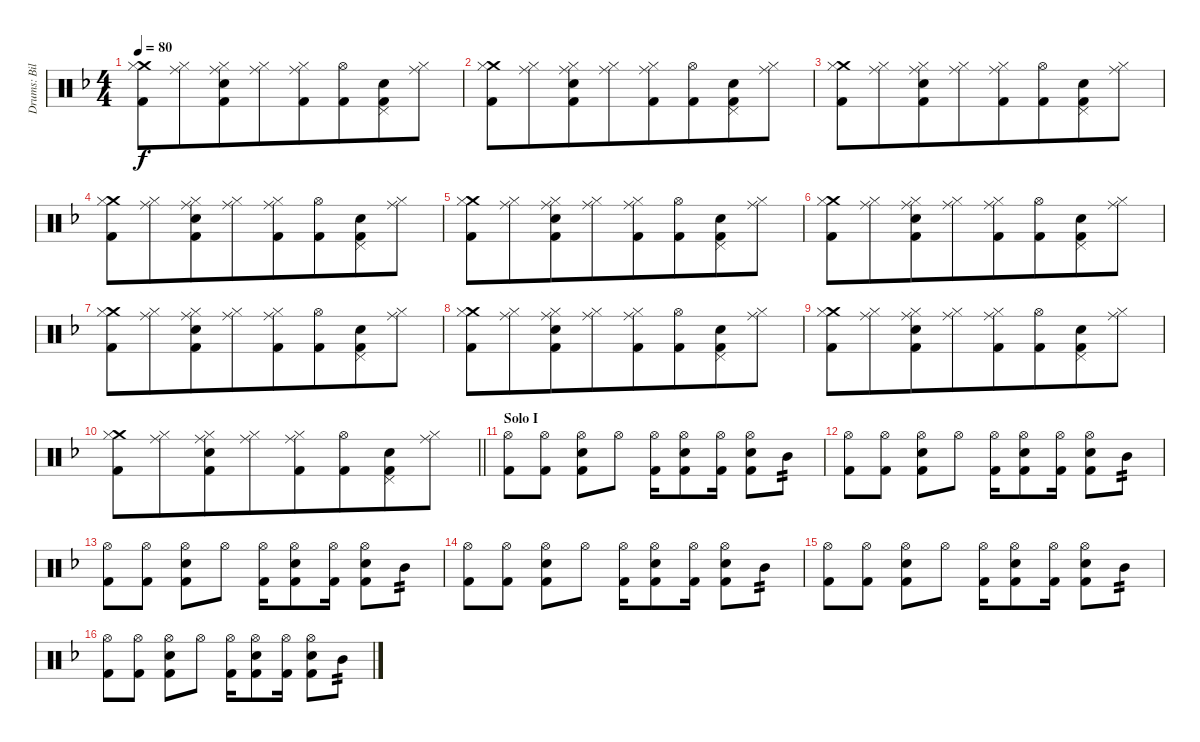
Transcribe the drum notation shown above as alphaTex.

\track ("Drums: Bill" "Drums: Bil") {instrument percussion}
\staff {score}
\articulation defaults
\ts (4 4)
\tempo 80
\clef neutral
\ks f
("Crash medium (hit)" "Hi-Hat (closed)" "Kick (hit) 2").8{dy f} ("Ride (middle)" "Hi-Hat (closed)").8{beam merge} ("Ride (middle)" "Hi-Hat (closed)" "Snare (hit) 2" "Kick (hit) 2").8 ("Ride (middle)" "Hi-Hat (closed)").8{beam merge} ("Ride (middle)" "Hi-Hat (closed)" "Kick (hit) 2").8 ("Hi-Hat (open)" "Kick (hit) 2").8{beam merge} ("Pedal Hi-Hat (hit)" "Snare (hit) 2" "Kick (hit) 2").8 ("Ride (middle)" "Hi-Hat (closed)").8 |
("Crash medium (hit)" "Hi-Hat (closed)" "Kick (hit) 2").8 ("Ride (middle)" "Hi-Hat (closed)").8{beam merge} ("Ride (middle)" "Hi-Hat (closed)" "Snare (hit) 2" "Kick (hit) 2").8 ("Ride (middle)" "Hi-Hat (closed)").8{beam merge} ("Ride (middle)" "Hi-Hat (closed)" "Kick (hit) 2").8 ("Hi-Hat (open)" "Kick (hit) 2").8{beam merge} ("Pedal Hi-Hat (hit)" "Snare (hit) 2" "Kick (hit) 2").8 ("Ride (middle)" "Hi-Hat (closed)").8 |
("Crash medium (hit)" "Hi-Hat (closed)" "Kick (hit) 2").8 ("Ride (middle)" "Hi-Hat (closed)").8{beam merge} ("Ride (middle)" "Hi-Hat (closed)" "Snare (hit) 2" "Kick (hit) 2").8 ("Ride (middle)" "Hi-Hat (closed)").8{beam merge} ("Ride (middle)" "Hi-Hat (closed)" "Kick (hit) 2").8 ("Hi-Hat (open)" "Kick (hit) 2").8{beam merge} ("Pedal Hi-Hat (hit)" "Snare (hit) 2" "Kick (hit) 2").8 ("Ride (middle)" "Hi-Hat (closed)").8 |
("Crash medium (hit)" "Hi-Hat (closed)" "Kick (hit) 2").8 ("Ride (middle)" "Hi-Hat (closed)").8{beam merge} ("Ride (middle)" "Hi-Hat (closed)" "Snare (hit) 2" "Kick (hit) 2").8 ("Ride (middle)" "Hi-Hat (closed)").8{beam merge} ("Ride (middle)" "Hi-Hat (closed)" "Kick (hit) 2").8 ("Hi-Hat (open)" "Kick (hit) 2").8{beam merge} ("Pedal Hi-Hat (hit)" "Snare (hit) 2" "Kick (hit) 2").8 ("Ride (middle)" "Hi-Hat (closed)").8 |
("Crash medium (hit)" "Hi-Hat (closed)" "Kick (hit) 2").8 ("Ride (middle)" "Hi-Hat (closed)").8{beam merge} ("Ride (middle)" "Hi-Hat (closed)" "Snare (hit) 2" "Kick (hit) 2").8 ("Ride (middle)" "Hi-Hat (closed)").8{beam merge} ("Ride (middle)" "Hi-Hat (closed)" "Kick (hit) 2").8 ("Hi-Hat (open)" "Kick (hit) 2").8{beam merge} ("Pedal Hi-Hat (hit)" "Snare (hit) 2" "Kick (hit) 2").8 ("Ride (middle)" "Hi-Hat (closed)").8 |
("Crash medium (hit)" "Hi-Hat (closed)" "Kick (hit) 2").8 ("Ride (middle)" "Hi-Hat (closed)").8{beam merge} ("Ride (middle)" "Hi-Hat (closed)" "Snare (hit) 2" "Kick (hit) 2").8 ("Ride (middle)" "Hi-Hat (closed)").8{beam merge} ("Ride (middle)" "Hi-Hat (closed)" "Kick (hit) 2").8 ("Hi-Hat (open)" "Kick (hit) 2").8{beam merge} ("Pedal Hi-Hat (hit)" "Snare (hit) 2" "Kick (hit) 2").8 ("Ride (middle)" "Hi-Hat (closed)").8 |
("Crash medium (hit)" "Hi-Hat (closed)" "Kick (hit) 2").8 ("Ride (middle)" "Hi-Hat (closed)").8{beam merge} ("Ride (middle)" "Hi-Hat (closed)" "Snare (hit) 2" "Kick (hit) 2").8 ("Ride (middle)" "Hi-Hat (closed)").8{beam merge} ("Ride (middle)" "Hi-Hat (closed)" "Kick (hit) 2").8 ("Hi-Hat (open)" "Kick (hit) 2").8{beam merge} ("Pedal Hi-Hat (hit)" "Snare (hit) 2" "Kick (hit) 2").8 ("Ride (middle)" "Hi-Hat (closed)").8 |
("Crash medium (hit)" "Hi-Hat (closed)" "Kick (hit) 2").8 ("Ride (middle)" "Hi-Hat (closed)").8{beam merge} ("Ride (middle)" "Hi-Hat (closed)" "Snare (hit) 2" "Kick (hit) 2").8 ("Ride (middle)" "Hi-Hat (closed)").8{beam merge} ("Ride (middle)" "Hi-Hat (closed)" "Kick (hit) 2").8 ("Hi-Hat (open)" "Kick (hit) 2").8{beam merge} ("Pedal Hi-Hat (hit)" "Snare (hit) 2" "Kick (hit) 2").8 ("Ride (middle)" "Hi-Hat (closed)").8 |
("Crash medium (hit)" "Hi-Hat (closed)" "Kick (hit) 2").8 ("Ride (middle)" "Hi-Hat (closed)").8{beam merge} ("Ride (middle)" "Hi-Hat (closed)" "Snare (hit) 2" "Kick (hit) 2").8 ("Ride (middle)" "Hi-Hat (closed)").8{beam merge} ("Ride (middle)" "Hi-Hat (closed)" "Kick (hit) 2").8 ("Hi-Hat (open)" "Kick (hit) 2").8{beam merge} ("Pedal Hi-Hat (hit)" "Snare (hit) 2" "Kick (hit) 2").8 ("Ride (middle)" "Hi-Hat (closed)").8 |
\barLineRight lightlight
("Crash medium (hit)" "Hi-Hat (closed)" "Kick (hit) 2").8 ("Ride (middle)" "Hi-Hat (closed)").8{beam merge} ("Ride (middle)" "Hi-Hat (closed)" "Snare (hit) 2" "Kick (hit) 2").8 ("Ride (middle)" "Hi-Hat (closed)").8{beam merge} ("Ride (middle)" "Hi-Hat (closed)" "Kick (hit) 2").8 ("Hi-Hat (open)" "Kick (hit) 2").8{beam merge} ("Pedal Hi-Hat (hit)" "Snare (hit) 2" "Kick (hit) 2").8 ("Ride (middle)" "Hi-Hat (closed)").8 |
\section ("" "Solo I")
("Hi-Hat (open)" "Kick (hit) 2").8 ("Hi-Hat (open)" "Kick (hit) 2").8 ("Hi-Hat (open)" "Snare (hit) 2" "Kick (hit) 2").8 "Hi-Hat (open)".8 ("Hi-Hat (open)" "Kick (hit) 2").16 ("Hi-Hat (open)" "Snare (hit) 2" "Kick (hit) 2").8 ("Hi-Hat (open)" "Kick (hit) 2").16 ("Hi-Hat (open)" "Snare (hit) 2" "Kick (hit) 2").8 "Mid Tom (hit)".8{tp 2} |
("Hi-Hat (open)" "Kick (hit) 2").8 ("Hi-Hat (open)" "Kick (hit) 2").8 ("Hi-Hat (open)" "Snare (hit) 2" "Kick (hit) 2").8 "Hi-Hat (open)".8 ("Hi-Hat (open)" "Kick (hit) 2").16 ("Hi-Hat (open)" "Snare (hit) 2" "Kick (hit) 2").8 ("Hi-Hat (open)" "Kick (hit) 2").16 ("Hi-Hat (open)" "Snare (hit) 2" "Kick (hit) 2").8 "Mid Tom (hit)".8{tp 2} |
("Hi-Hat (open)" "Kick (hit) 2").8 ("Hi-Hat (open)" "Kick (hit) 2").8 ("Hi-Hat (open)" "Snare (hit) 2" "Kick (hit) 2").8 "Hi-Hat (open)".8 ("Hi-Hat (open)" "Kick (hit) 2").16 ("Hi-Hat (open)" "Snare (hit) 2" "Kick (hit) 2").8 ("Hi-Hat (open)" "Kick (hit) 2").16 ("Hi-Hat (open)" "Snare (hit) 2" "Kick (hit) 2").8 "Mid Tom (hit)".8{tp 2} |
("Hi-Hat (open)" "Kick (hit) 2").8 ("Hi-Hat (open)" "Kick (hit) 2").8 ("Hi-Hat (open)" "Snare (hit) 2" "Kick (hit) 2").8 "Hi-Hat (open)".8 ("Hi-Hat (open)" "Kick (hit) 2").16 ("Hi-Hat (open)" "Snare (hit) 2" "Kick (hit) 2").8 ("Hi-Hat (open)" "Kick (hit) 2").16 ("Hi-Hat (open)" "Snare (hit) 2" "Kick (hit) 2").8 "Mid Tom (hit)".8{tp 2} |
("Hi-Hat (open)" "Kick (hit) 2").8 ("Hi-Hat (open)" "Kick (hit) 2").8 ("Hi-Hat (open)" "Snare (hit) 2" "Kick (hit) 2").8 "Hi-Hat (open)".8 ("Hi-Hat (open)" "Kick (hit) 2").16 ("Hi-Hat (open)" "Snare (hit) 2" "Kick (hit) 2").8 ("Hi-Hat (open)" "Kick (hit) 2").16 ("Hi-Hat (open)" "Snare (hit) 2" "Kick (hit) 2").8 "Mid Tom (hit)".8{tp 2} |
("Hi-Hat (open)" "Kick (hit) 2").8 ("Hi-Hat (open)" "Kick (hit) 2").8 ("Hi-Hat (open)" "Snare (hit) 2" "Kick (hit) 2").8 "Hi-Hat (open)".8 ("Hi-Hat (open)" "Kick (hit) 2").16 ("Hi-Hat (open)" "Snare (hit) 2" "Kick (hit) 2").8 ("Hi-Hat (open)" "Kick (hit) 2").16 ("Hi-Hat (open)" "Snare (hit) 2" "Kick (hit) 2").8 "Mid Tom (hit)".8{tp 2}
